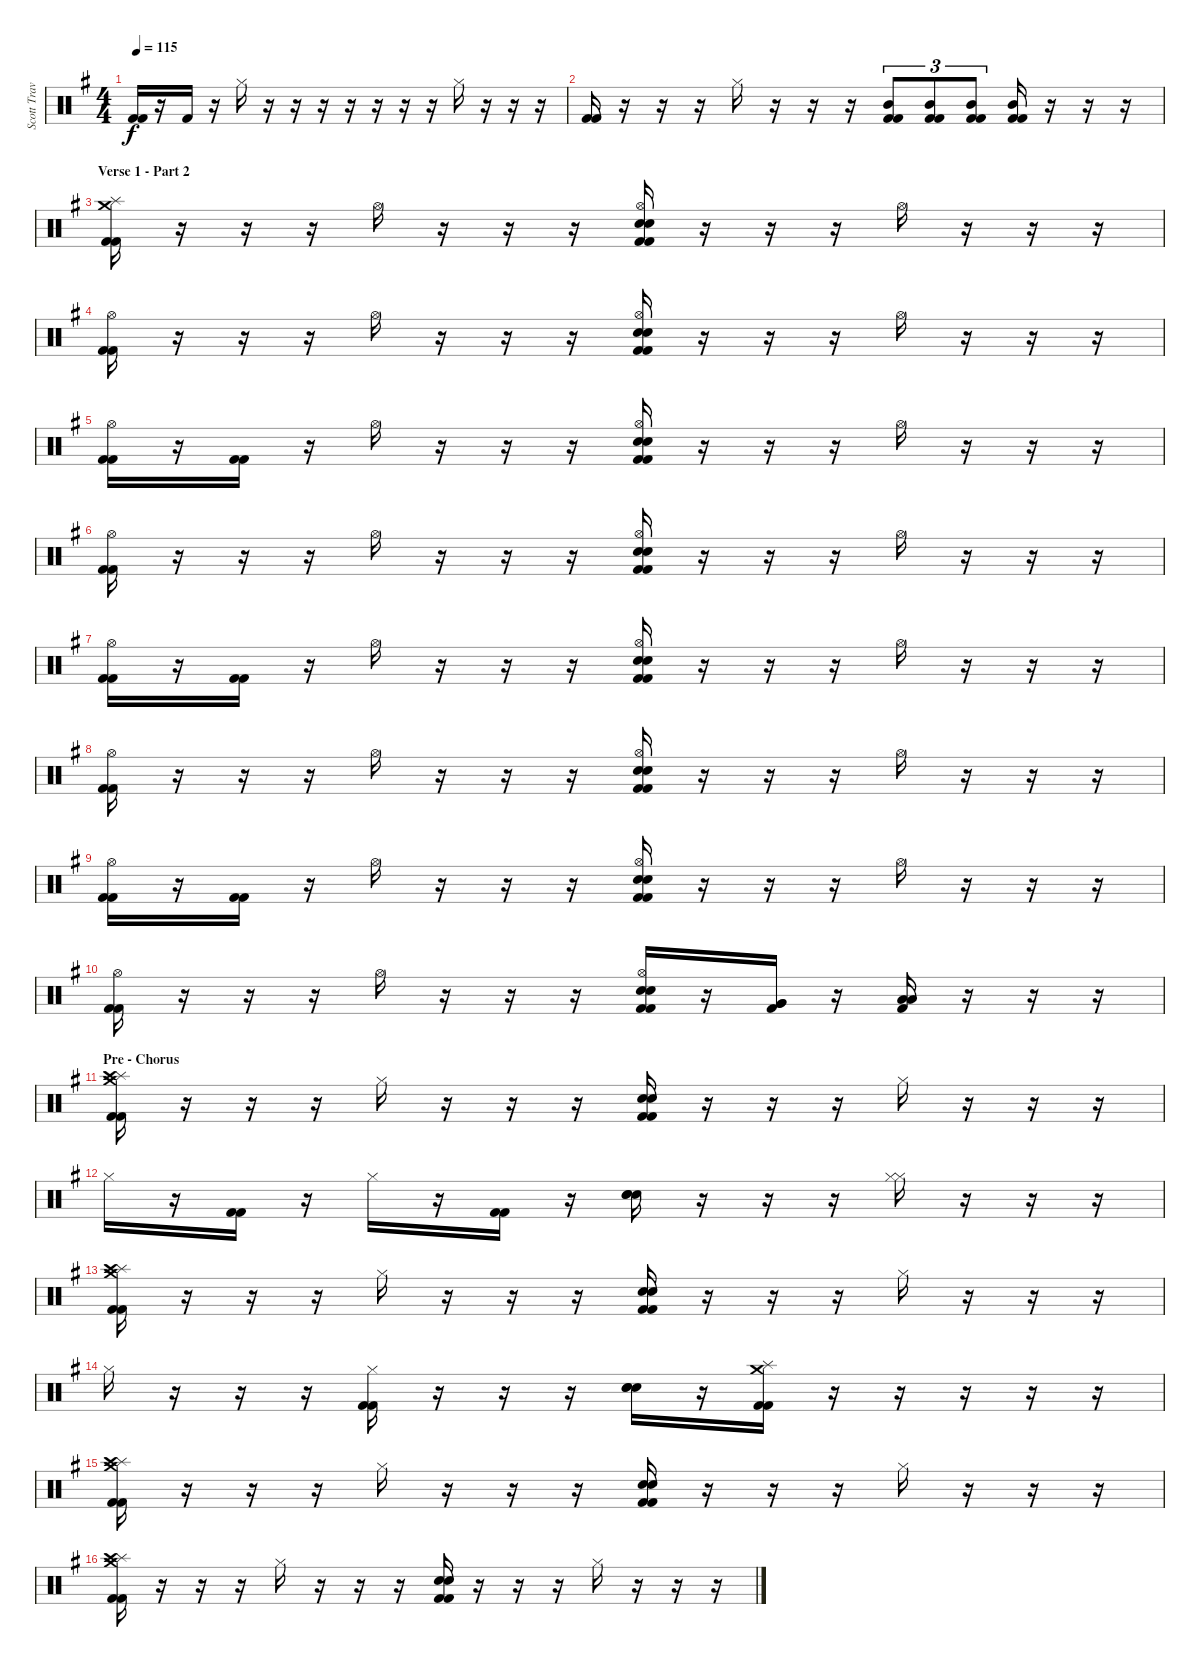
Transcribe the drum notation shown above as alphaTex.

\track ("Scott Travis" "Scott Trav") {instrument percussion}
\staff {score}
\articulation defaults
\ts (4 4)
\tempo 115
\clef neutral
\ks eminor
("Kick (hit) 2" "Kick (hit) 2").16{dy f} r.16 "Kick (hit) 2".16 r.16 "Hi-Hat (closed)".16 r.16 r.16 r.16 r.16 r.16 r.16 r.16 "Hi-Hat (closed)".16 r.16 r.16 r.16 |
("Kick (hit) 2" "Kick (hit) 2").16 r.16 r.16 r.16 "Hi-Hat (closed)".16 r.16 r.16 r.16 ("Mid Tom (hit)" "Kick (hit) 2" "Kick (hit) 2").8{tu (3 2)} ("Mid Tom (hit)" "Kick (hit) 2" "Kick (hit) 2").8{tu (3 2)} ("Mid Tom (hit)" "Kick (hit) 2" "Kick (hit) 2").8{tu (3 2)} ("Mid Tom (hit)" "Kick (hit) 2" "Kick (hit) 2").16 r.16 r.16 r.16 |
\section ("" "Verse 1 - Part 2")
("Crash medium (hit)" "Splash (hit)" "Kick (hit) 2" "Kick (hit) 2").16 r.16 r.16 r.16 "Hi-Hat (open)".16 r.16 r.16 r.16 ("Hi-Hat (open)" "Snare (hit) 2" "Snare (hit) 2" "Kick (hit) 2" "Kick (hit) 2").16 r.16 r.16 r.16 "Hi-Hat (open)".16 r.16 r.16 r.16 |
("Hi-Hat (open)" "Kick (hit) 2" "Kick (hit) 2").16 r.16 r.16 r.16 "Hi-Hat (open)".16 r.16 r.16 r.16 ("Hi-Hat (open)" "Snare (hit) 2" "Snare (hit) 2" "Kick (hit) 2" "Kick (hit) 2").16 r.16 r.16 r.16 "Hi-Hat (open)".16 r.16 r.16 r.16 |
("Hi-Hat (open)" "Kick (hit) 2" "Kick (hit) 2").16 r.16 ("Kick (hit) 2" "Kick (hit) 2").16 r.16 "Hi-Hat (open)".16 r.16 r.16 r.16 ("Hi-Hat (open)" "Snare (hit) 2" "Snare (hit) 2" "Kick (hit) 2" "Kick (hit) 2").16 r.16 r.16 r.16 "Hi-Hat (open)".16 r.16 r.16 r.16 |
("Hi-Hat (open)" "Kick (hit) 2" "Kick (hit) 2").16 r.16 r.16 r.16 "Hi-Hat (open)".16 r.16 r.16 r.16 ("Hi-Hat (open)" "Snare (hit) 2" "Snare (hit) 2" "Kick (hit) 2" "Kick (hit) 2").16 r.16 r.16 r.16 "Hi-Hat (open)".16 r.16 r.16 r.16 |
("Hi-Hat (open)" "Kick (hit) 2" "Kick (hit) 2").16 r.16 ("Kick (hit) 2" "Kick (hit) 2").16 r.16 "Hi-Hat (open)".16 r.16 r.16 r.16 ("Hi-Hat (open)" "Snare (hit) 2" "Snare (hit) 2" "Kick (hit) 2" "Kick (hit) 2").16 r.16 r.16 r.16 "Hi-Hat (open)".16 r.16 r.16 r.16 |
("Hi-Hat (open)" "Kick (hit) 2" "Kick (hit) 2").16 r.16 r.16 r.16 "Hi-Hat (open)".16 r.16 r.16 r.16 ("Hi-Hat (open)" "Snare (hit) 2" "Snare (hit) 2" "Kick (hit) 2" "Kick (hit) 2").16 r.16 r.16 r.16 "Hi-Hat (open)".16 r.16 r.16 r.16 |
("Hi-Hat (open)" "Kick (hit) 2" "Kick (hit) 2").16 r.16 ("Kick (hit) 2" "Kick (hit) 2").16 r.16 "Hi-Hat (open)".16 r.16 r.16 r.16 ("Hi-Hat (open)" "Snare (hit) 2" "Snare (hit) 2" "Kick (hit) 2" "Kick (hit) 2").16 r.16 r.16 r.16 "Hi-Hat (open)".16 r.16 r.16 r.16 |
("Hi-Hat (open)" "Kick (hit) 2" "Kick (hit) 2").16 r.16 r.16 r.16 "Hi-Hat (open)".16 r.16 r.16 r.16 ("Hi-Hat (open)" "Snare (hit) 2" "Snare (hit) 2" "Kick (hit) 2" "Kick (hit) 2").16 r.16 ("Very Low Tom (hit)" "Very Low Tom (hit)" "Kick (hit) 2").16 r.16 ("Low Floor Tom (hit)" "Low Floor Tom (hit)" "Kick (hit) 2").16 r.16 r.16 r.16 |
\section ("" "Pre - Chorus")
("Splash (hit)" "Crash high (hit)" "Crash medium (hit)" "Kick (hit) 2" "Kick (hit) 2").16 r.16 r.16 r.16 "Hi-Hat (closed)".16 r.16 r.16 r.16 ("Snare (hit) 2" "Snare (hit) 2" "Kick (hit) 2" "Kick (hit) 2").16 r.16 r.16 r.16 "Hi-Hat (closed)".16 r.16 r.16 r.16 |
"Hi-Hat (closed)".16 r.16 ("Kick (hit) 2" "Kick (hit) 2").16 r.16 "Hi-Hat (closed)".16 r.16 ("Kick (hit) 2" "Kick (hit) 2").16 r.16 ("Snare (hit) 2" "Snare (hit) 2" "Snare (hit) 2").16 r.16 r.16 r.16 ("Hi-Hat (closed)" "Hi-Hat (closed)").16 r.16 r.16 r.16 |
("Splash (hit)" "Crash high (hit)" "Crash medium (hit)" "Kick (hit) 2" "Kick (hit) 2").16 r.16 r.16 r.16 "Hi-Hat (closed)".16 r.16 r.16 r.16 ("Snare (hit) 2" "Snare (hit) 2" "Kick (hit) 2" "Kick (hit) 2").16 r.16 r.16 r.16 "Hi-Hat (closed)".16 r.16 r.16 r.16 |
"Hi-Hat (closed)".16 r.16 r.16 r.16 ("Hi-Hat (closed)" "Kick (hit) 2" "Kick (hit) 2").16 r.16 r.16 r.16 ("Snare (hit) 2" "Snare (hit) 2" "Snare (hit) 2").16 r.16 ("Crash medium (hit)" "Splash (hit)" "Kick (hit) 2" "Kick (hit) 2").16 r.16 r.16 r.16 r.16 r.16 |
("Splash (hit)" "Crash high (hit)" "Crash medium (hit)" "Kick (hit) 2" "Kick (hit) 2").16 r.16 r.16 r.16 "Hi-Hat (closed)".16 r.16 r.16 r.16 ("Snare (hit) 2" "Snare (hit) 2" "Kick (hit) 2" "Kick (hit) 2").16 r.16 r.16 r.16 "Hi-Hat (closed)".16 r.16 r.16 r.16 |
("Splash (hit)" "Crash high (hit)" "Crash medium (hit)" "Kick (hit) 2" "Kick (hit) 2").16 r.16 r.16 r.16 "Hi-Hat (closed)".16 r.16 r.16 r.16 ("Snare (hit) 2" "Snare (hit) 2" "Kick (hit) 2" "Kick (hit) 2").16 r.16 r.16 r.16 "Hi-Hat (closed)".16 r.16 r.16 r.16
